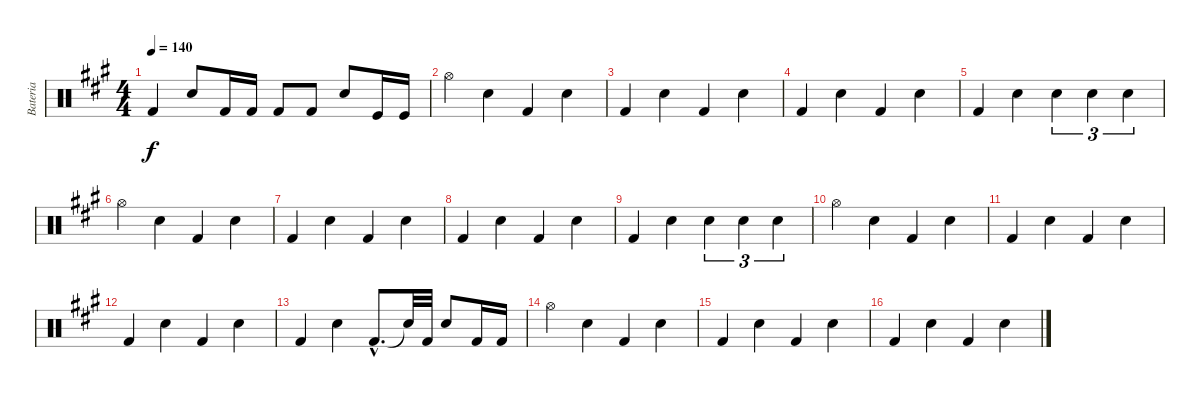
\track ("Bateria" "Bateria") {instrument percussion}
\staff {score}
\articulation defaults
\ts (4 4)
\tempo 140
\clef neutral
\ks a "Kick (hit) 2".4{dy f} "Electric Snare (hit)".8 "Kick (hit) 2".16 "Kick (hit) 2".16 "Kick (hit) 2".8 "Kick (hit) 2".8 "Electric Snare (hit)".8 "Kick (hit)".16 "Kick (hit)".16
|
"Hi-Hat (open)".4 "Electric Snare (hit)".4 "Kick (hit) 2".4 "Electric Snare (hit)".4 |
"Kick (hit) 2".4 "Electric Snare (hit)".4 "Kick (hit) 2".4 "Electric Snare (hit)".4 |
"Kick (hit) 2".4 "Electric Snare (hit)".4 "Kick (hit) 2".4 "Electric Snare (hit)".4 |
"Kick (hit) 2".4 "Electric Snare (hit)".4 "Electric Snare (hit)".4{tu (3 2)} "Electric Snare (hit)".4{tu (3 2)} "Electric Snare (hit)".4{tu (3 2)} |
"Hi-Hat (open)".4 "Electric Snare (hit)".4 "Kick (hit) 2".4 "Electric Snare (hit)".4 |
"Kick (hit) 2".4 "Electric Snare (hit)".4 "Kick (hit) 2".4 "Electric Snare (hit)".4 |
"Kick (hit) 2".4 "Electric Snare (hit)".4 "Kick (hit) 2".4 "Electric Snare (hit)".4 |
"Kick (hit) 2".4 "Electric Snare (hit)".4 "Electric Snare (hit)".4{tu (3 2)} "Electric Snare (hit)".4{tu (3 2)} "Electric Snare (hit)".4{tu (3 2)} |
"Hi-Hat (open)".4 "Electric Snare (hit)".4 "Kick (hit) 2".4 "Electric Snare (hit)".4 |
"Kick (hit) 2".4 "Electric Snare (hit)".4 "Kick (hit) 2".4 "Electric Snare (hit)".4 |
"Kick (hit) 2".4 "Electric Snare (hit)".4 "Kick (hit) 2".4 "Electric Snare (hit)".4 |
"Kick (hit) 2".4 "Electric Snare (hit)".4 "Kick (hit) 2"{hac}.8{d} "Snare (hit)"{t}.32 "Kick (hit) 2".32 "Electric Snare (hit)".8 "Kick (hit) 2".16 "Kick (hit) 2".16 |
"Hi-Hat (open)".4 "Electric Snare (hit)".4 "Kick (hit) 2".4 "Electric Snare (hit)".4 |
"Kick (hit) 2".4 "Electric Snare (hit)".4 "Kick (hit) 2".4 "Electric Snare (hit)".4 |
"Kick (hit) 2".4 "Electric Snare (hit)".4 "Kick (hit) 2".4 "Electric Snare (hit)".4
